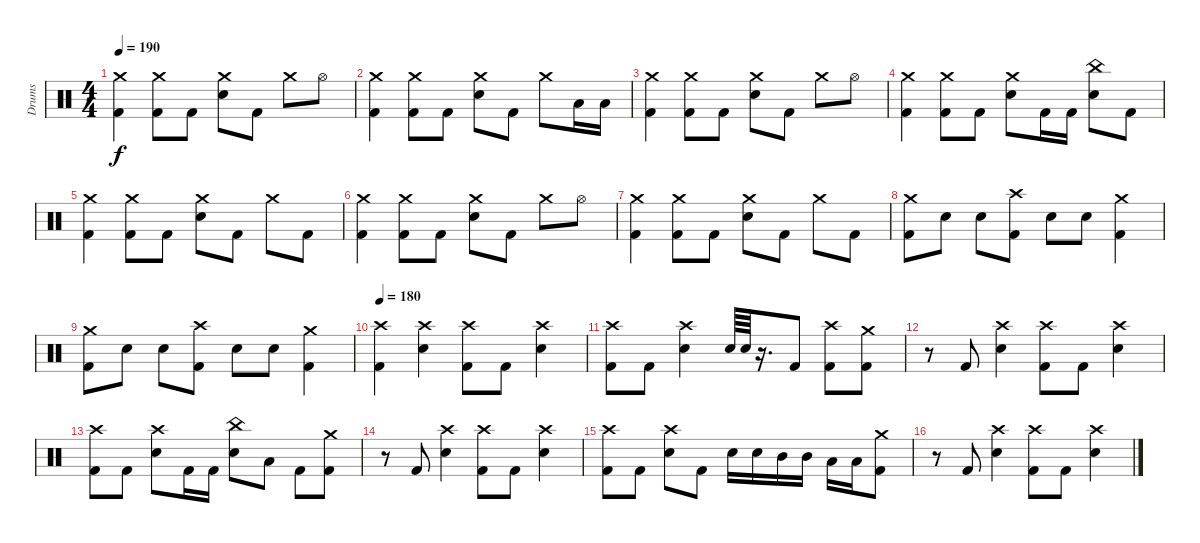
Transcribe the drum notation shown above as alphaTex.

\track ("Drums" "Drums") {instrument percussion}
\staff {score}
\articulation defaults
\ts (4 4)
\tempo 190
\clef neutral
\ks c
("Crash medium (hit)" "Kick (hit) 2").4{dy f} ("Crash medium (hit)" "Kick (hit) 2").8 "Kick (hit) 2".8 ("Crash medium (hit)" "Electric Snare (hit)").8 "Kick (hit) 2".8 "Crash medium (hit)".8 "Hi-Hat (open)".8 |
("Crash medium (hit)" "Kick (hit) 2").4 ("Crash medium (hit)" "Kick (hit) 2").8 "Kick (hit) 2".8 ("Crash medium (hit)" "Electric Snare (hit)").8 "Kick (hit) 2".8 "Crash medium (hit)".8 "Low Tom (hit)".16 "Low Tom (hit)".16 |
("Crash medium (hit)" "Kick (hit) 2").4 ("Crash medium (hit)" "Kick (hit) 2").8 "Kick (hit) 2".8 ("Crash medium (hit)" "Electric Snare (hit)").8 "Kick (hit) 2".8 "Crash medium (hit)".8 "Hi-Hat (open)".8 |
("Crash medium (hit)" "Kick (hit) 2").4 ("Crash medium (hit)" "Kick (hit) 2").8 "Kick (hit) 2".8 ("Crash medium (hit)" "Electric Snare (hit)").8 "Kick (hit) 2".16 "Kick (hit) 2".16 ("China (hit)" "Electric Snare (hit)").8 "Kick (hit) 2".8 |
("Crash medium (hit)" "Kick (hit) 2").4 ("Crash medium (hit)" "Kick (hit) 2").8 "Kick (hit) 2".8 ("Crash medium (hit)" "Electric Snare (hit)").8 "Kick (hit) 2".8 "Crash medium (hit)".8 "Kick (hit) 2".8 |
("Crash medium (hit)" "Kick (hit) 2").4 ("Crash medium (hit)" "Kick (hit) 2").8 "Kick (hit) 2".8 ("Crash medium (hit)" "Electric Snare (hit)").8 "Kick (hit) 2".8 "Crash medium (hit)".8 "Hi-Hat (open)".8 |
("Crash medium (hit)" "Kick (hit) 2").4 ("Crash medium (hit)" "Kick (hit) 2").8 "Kick (hit) 2".8 ("Crash medium (hit)" "Electric Snare (hit)").8 "Kick (hit) 2".8 "Crash medium (hit)".8 "Kick (hit) 2".8 |
("Crash medium (hit)" "Kick (hit) 2").8 "Electric Snare (hit)".8 "Electric Snare (hit)".8 ("Crash high (hit)" "Kick (hit) 2").8 "Electric Snare (hit)".8 "Electric Snare (hit)".8 ("Crash medium (hit)" "Kick (hit) 2").4 |
("Crash medium (hit)" "Kick (hit) 2").8 "Electric Snare (hit)".8 "Electric Snare (hit)".8 ("Crash high (hit)" "Kick (hit) 2").8 "Electric Snare (hit)".8 "Electric Snare (hit)".8 ("Crash medium (hit)" "Kick (hit) 2").4 |
\tempo 180
("Crash high (hit)" "Kick (hit) 2").4 ("Crash high (hit)" "Electric Snare (hit)").4 ("Crash high (hit)" "Kick (hit) 2").8 "Kick (hit) 2".8 ("Crash high (hit)" "Electric Snare (hit)").4 |
("Crash high (hit)" "Kick (hit) 2").8 "Kick (hit) 2".8 ("Crash high (hit)" "Electric Snare (hit)").4 "Electric Snare (hit)".64 "Electric Snare (hit)".64 r.16{d} "Kick (hit) 2".8 ("Crash high (hit)" "Kick (hit) 2").8 ("Crash medium (hit)" "Kick (hit) 2").8 |
r.8 "Kick (hit) 2".8 ("Crash high (hit)" "Electric Snare (hit)").4 ("Crash high (hit)" "Kick (hit) 2").8 "Kick (hit) 2".8 ("Crash high (hit)" "Electric Snare (hit)").4 |
("Crash high (hit)" "Kick (hit) 2").8 "Kick (hit) 2".8 ("Crash high (hit)" "Electric Snare (hit)").8 "Kick (hit) 2".16 "Kick (hit) 2".16 ("China (hit)" "Electric Snare (hit)").8 "Low Tom (hit)".8 "Kick (hit) 2".8 ("Crash medium (hit)" "Kick (hit) 2").8 |
r.8 "Kick (hit) 2".8 ("Crash high (hit)" "Electric Snare (hit)").4 ("Crash high (hit)" "Kick (hit) 2").8 "Kick (hit) 2".8 ("Crash high (hit)" "Electric Snare (hit)").4 |
("Crash high (hit)" "Kick (hit) 2").8 "Kick (hit) 2".8 ("Crash high (hit)" "Electric Snare (hit)").8 "Kick (hit) 2".8 "Electric Snare (hit)".16 "Electric Snare (hit)".16 "Mid Tom (hit)".16 "Mid Tom (hit)".16 "Low Tom (hit)".16 "Low Tom (hit)".16 ("Crash medium (hit)" "Kick (hit) 2").8 |
r.8 "Kick (hit) 2".8 ("Crash high (hit)" "Electric Snare (hit)").4 ("Crash high (hit)" "Kick (hit) 2").8 "Kick (hit) 2".8 ("Crash high (hit)" "Electric Snare (hit)").4
